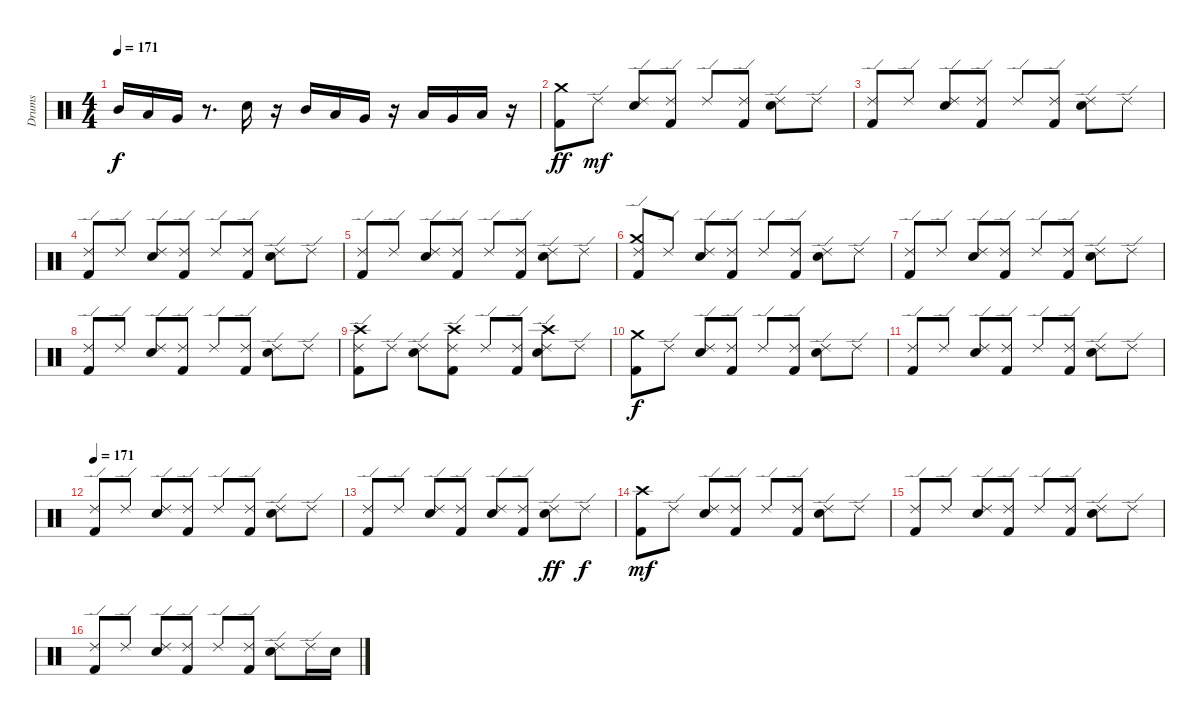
\track ("Drums" "Drums") {instrument percussion}
\staff {score}
\articulation defaults
\ts (4 4)
\tempo 171
\clef neutral
\ks c "Mid Tom (hit)".16{dy f} "Low Tom (hit)".16 "Very Low Tom (hit)".16
r.8{d} "Electric Snare (hit)".16 r.16 "Mid Tom (hit)".16 "Low Tom (hit)".16 "Very Low Tom (hit)".16 r.16 "Low Tom (hit)".16 "Very Low Tom (hit)".16 "Low Floor Tom (hit)".16 r.16 |
("Kick (hit) 2" "Crash medium (hit)").8{dy ff} "Ride (edge) 2".8{dy mf} ("Electric Snare (hit)" "Ride (edge) 2").8 ("Kick (hit) 2" "Ride (edge) 2").8 "Ride (edge) 2".8 ("Kick (hit) 2" "Ride (edge) 2").8 ("Electric Snare (hit)" "Ride (edge) 2").8 "Ride (edge) 2".8 |
("Kick (hit) 2" "Ride (edge) 2").8 "Ride (edge) 2".8 ("Electric Snare (hit)" "Ride (edge) 2").8 ("Kick (hit) 2" "Ride (edge) 2").8 "Ride (edge) 2".8 ("Kick (hit) 2" "Ride (edge) 2").8 ("Electric Snare (hit)" "Ride (edge) 2").8 "Ride (edge) 2".8 |
("Kick (hit) 2" "Ride (edge) 2").8 "Ride (edge) 2".8 ("Electric Snare (hit)" "Ride (edge) 2").8 ("Kick (hit) 2" "Ride (edge) 2").8 "Ride (edge) 2".8 ("Kick (hit) 2" "Ride (edge) 2").8 ("Electric Snare (hit)" "Ride (edge) 2").8 "Ride (edge) 2".8 |
("Kick (hit) 2" "Ride (edge) 2").8 "Ride (edge) 2".8 ("Electric Snare (hit)" "Ride (edge) 2").8 ("Kick (hit) 2" "Ride (edge) 2").8 "Ride (edge) 2".8 ("Kick (hit) 2" "Ride (edge) 2").8 ("Electric Snare (hit)" "Ride (edge) 2").8 "Ride (edge) 2".8 |
("Kick (hit) 2" "Crash medium (hit)" "Ride (edge) 2").8 "Ride (edge) 2".8 ("Electric Snare (hit)" "Ride (edge) 2").8 ("Kick (hit) 2" "Ride (edge) 2").8 "Ride (edge) 2".8 ("Kick (hit) 2" "Ride (edge) 2").8 ("Electric Snare (hit)" "Ride (edge) 2").8 "Ride (edge) 2".8 |
("Kick (hit) 2" "Ride (edge) 2").8 "Ride (edge) 2".8 ("Electric Snare (hit)" "Ride (edge) 2").8 ("Kick (hit) 2" "Ride (edge) 2").8 "Ride (edge) 2".8 ("Kick (hit) 2" "Ride (edge) 2").8 ("Electric Snare (hit)" "Ride (edge) 2").8 "Ride (edge) 2".8 |
("Kick (hit) 2" "Ride (edge) 2").8 "Ride (edge) 2".8 ("Electric Snare (hit)" "Ride (edge) 2").8 ("Kick (hit) 2" "Ride (edge) 2").8 "Ride (edge) 2".8 ("Kick (hit) 2" "Ride (edge) 2").8 ("Electric Snare (hit)" "Ride (edge) 2").8 "Ride (edge) 2".8 |
("Kick (hit) 2" "Crash high (hit)" "Ride (edge) 2").8 "Ride (edge) 2".8 ("Electric Snare (hit)" "Ride (edge) 2").8 ("Kick (hit) 2" "Crash high (hit)" "Ride (edge) 2").8 "Ride (edge) 2".8 ("Kick (hit) 2" "Ride (edge) 2").8 ("Electric Snare (hit)" "Crash high (hit)" "Ride (edge) 2").8 "Ride (edge) 2".8 |
("Kick (hit) 2" "Crash medium (hit)").8{dy f} "Ride (edge) 2".8 ("Electric Snare (hit)" "Ride (edge) 2").8 ("Kick (hit) 2" "Ride (edge) 2").8 "Ride (edge) 2".8 ("Kick (hit) 2" "Ride (edge) 2").8 ("Electric Snare (hit)" "Ride (edge) 2").8 "Ride (edge) 2".8 |
("Kick (hit) 2" "Ride (edge) 2").8 "Ride (edge) 2".8 ("Electric Snare (hit)" "Ride (edge) 2").8 ("Kick (hit) 2" "Ride (edge) 2").8 "Ride (edge) 2".8 ("Kick (hit) 2" "Ride (edge) 2").8 ("Electric Snare (hit)" "Ride (edge) 2").8 "Ride (edge) 2".8 |
\tempo 171
("Kick (hit) 2" "Ride (edge) 2").8 "Ride (edge) 2".8 ("Electric Snare (hit)" "Ride (edge) 2").8 ("Kick (hit) 2" "Ride (edge) 2").8 "Ride (edge) 2".8 ("Kick (hit) 2" "Ride (edge) 2").8 ("Electric Snare (hit)" "Ride (edge) 2").8 "Ride (edge) 2".8 |
("Kick (hit) 2" "Ride (edge) 2").8 "Ride (edge) 2".8 ("Electric Snare (hit)" "Ride (edge) 2").8 ("Kick (hit) 2" "Ride (edge) 2").8 ("Electric Snare (hit)" "Ride (edge) 2").8 ("Kick (hit) 2" "Ride (edge) 2").8 ("Electric Snare (hit)" "Ride (edge) 2").8{dy ff} "Ride (edge) 2".8{dy f} |
("Kick (hit) 2" "Crash high (hit)").8{dy mf} "Ride (edge) 2".8 ("Electric Snare (hit)" "Ride (edge) 2").8 ("Kick (hit) 2" "Ride (edge) 2").8 "Ride (edge) 2".8 ("Kick (hit) 2" "Ride (edge) 2").8 ("Electric Snare (hit)" "Ride (edge) 2").8 "Ride (edge) 2".8 |
("Kick (hit) 2" "Ride (edge) 2").8 "Ride (edge) 2".8 ("Electric Snare (hit)" "Ride (edge) 2").8 ("Kick (hit) 2" "Ride (edge) 2").8 "Ride (edge) 2".8 ("Kick (hit) 2" "Ride (edge) 2").8 ("Electric Snare (hit)" "Ride (edge) 2").8 "Ride (edge) 2".8 |
("Kick (hit) 2" "Ride (edge) 2").8 "Ride (edge) 2".8 ("Electric Snare (hit)" "Ride (edge) 2").8 ("Kick (hit) 2" "Ride (edge) 2").8 "Ride (edge) 2".8 ("Kick (hit) 2" "Ride (edge) 2").8 ("Electric Snare (hit)" "Ride (edge) 2").8 "Ride (edge) 2".16 "Electric Snare (hit)".16
